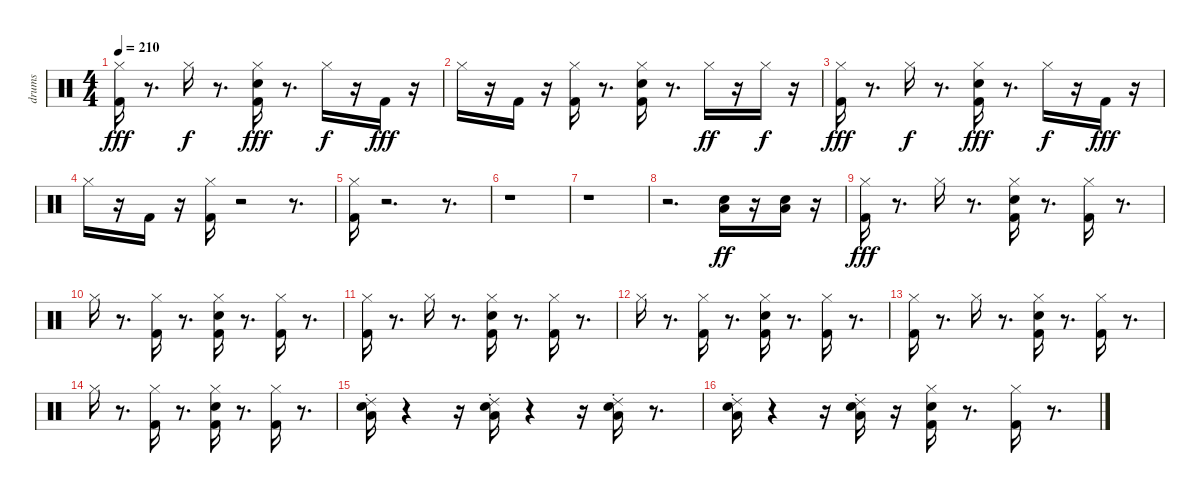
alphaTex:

\track ("drums" "drums") {instrument percussion}
\staff {score}
\articulation defaults
\ts (4 4)
\tempo 210
\clef neutral
\ks c
("Hi-Hat (closed)" "Kick (hit) 2").16{dy fff} r.8{d} "Hi-Hat (closed)".16{dy f} r.8{d} ("Electric Snare (hit)" "Hi-Hat (closed)" "Kick (hit) 2").16{dy fff} r.8{d} "Hi-Hat (closed)".16{dy f} r.16 "Kick (hit) 2".16{dy fff} r.16 |
"Hi-Hat (closed)".16 r.16 "Kick (hit) 2".16 r.16 ("Hi-Hat (closed)" "Kick (hit) 2").16 r.8{d} ("Electric Snare (hit)" "Hi-Hat (closed)" "Kick (hit) 2").16 r.8{d} "Hi-Hat (closed)".16{dy ff} r.16 "Hi-Hat (closed)".16{dy f} r.16 |
("Hi-Hat (closed)" "Kick (hit) 2").16{dy fff} r.8{d} "Hi-Hat (closed)".16{dy f} r.8{d} ("Electric Snare (hit)" "Hi-Hat (closed)" "Kick (hit) 2").16{dy fff} r.8{d} "Hi-Hat (closed)".16{dy f} r.16 "Kick (hit) 2".16{dy fff} r.16 |
"Hi-Hat (closed)".16 r.16 "Kick (hit) 2".16 r.16 ("Hi-Hat (closed)" "Kick (hit) 2").16 r.2 r.8{d} |
("Kick (hit) 2" "Hi-Hat (closed)").16 r.2{d} r.8{d} |
r.1 |
r.1 |
r.2{d} ("Snare (hit) 2" "Low Floor Tom (hit)").16{dy ff} r.16 ("Snare (hit) 2" "Low Floor Tom (hit)").16 r.16 |
("Kick (hit) 2" "Hi-Hat (closed)").16{dy fff} r.8{d} "Hi-Hat (closed)".16 r.8{d} ("Hi-Hat (closed)" "Electric Snare (hit)" "Kick (hit) 2").16 r.8{d} ("Hi-Hat (closed)" "Kick (hit) 2").16 r.8{d} |
"Hi-Hat (closed)".16 r.8{d} ("Hi-Hat (closed)" "Kick (hit) 2").16 r.8{d} ("Hi-Hat (closed)" "Electric Snare (hit)" "Kick (hit) 2").16 r.8{d} ("Hi-Hat (closed)" "Kick (hit) 2").16 r.8{d} |
("Hi-Hat (closed)" "Kick (hit) 2").16 r.8{d} "Hi-Hat (closed)".16 r.8{d} ("Hi-Hat (closed)" "Electric Snare (hit)" "Kick (hit) 2").16 r.8{d} ("Hi-Hat (closed)" "Kick (hit) 2").16 r.8{d} |
"Hi-Hat (closed)".16 r.8{d} ("Hi-Hat (closed)" "Kick (hit) 2").16 r.8{d} ("Hi-Hat (closed)" "Electric Snare (hit)" "Kick (hit) 2").16 r.8{d} ("Hi-Hat (closed)" "Kick (hit) 2").16 r.8{d} |
("Hi-Hat (closed)" "Kick (hit) 2").16 r.8{d} "Hi-Hat (closed)".16 r.8{d} ("Hi-Hat (closed)" "Electric Snare (hit)" "Kick (hit) 2").16 r.8{d} ("Hi-Hat (closed)" "Kick (hit) 2").16 r.8{d} |
"Hi-Hat (closed)".16 r.8{d} ("Hi-Hat (closed)" "Kick (hit) 2").16 r.8{d} ("Hi-Hat (closed)" "Electric Snare (hit)" "Kick (hit) 2").16 r.8{d} ("Hi-Hat (closed)" "Kick (hit) 2").16 r.8{d} |
("Low Floor Tom (hit)" "Snare (hit) 2" "Ride (choke) 2").16 r.4 r.16 ("Low Floor Tom (hit)" "Snare (hit) 2" "Ride (choke) 2").16 r.4 r.16 ("Low Floor Tom (hit)" "Snare (hit) 2" "Ride (choke) 2").16 r.8{d} |
("Low Floor Tom (hit)" "Snare (hit) 2" "Ride (choke) 2").16 r.4 r.16 ("Low Floor Tom (hit)" "Snare (hit) 2" "Ride (choke) 2").16 r.16 ("Hi-Hat (closed)" "Electric Snare (hit)" "Kick (hit) 2").16 r.8{d} ("Hi-Hat (closed)" "Kick (hit) 2").16 r.8{d}
